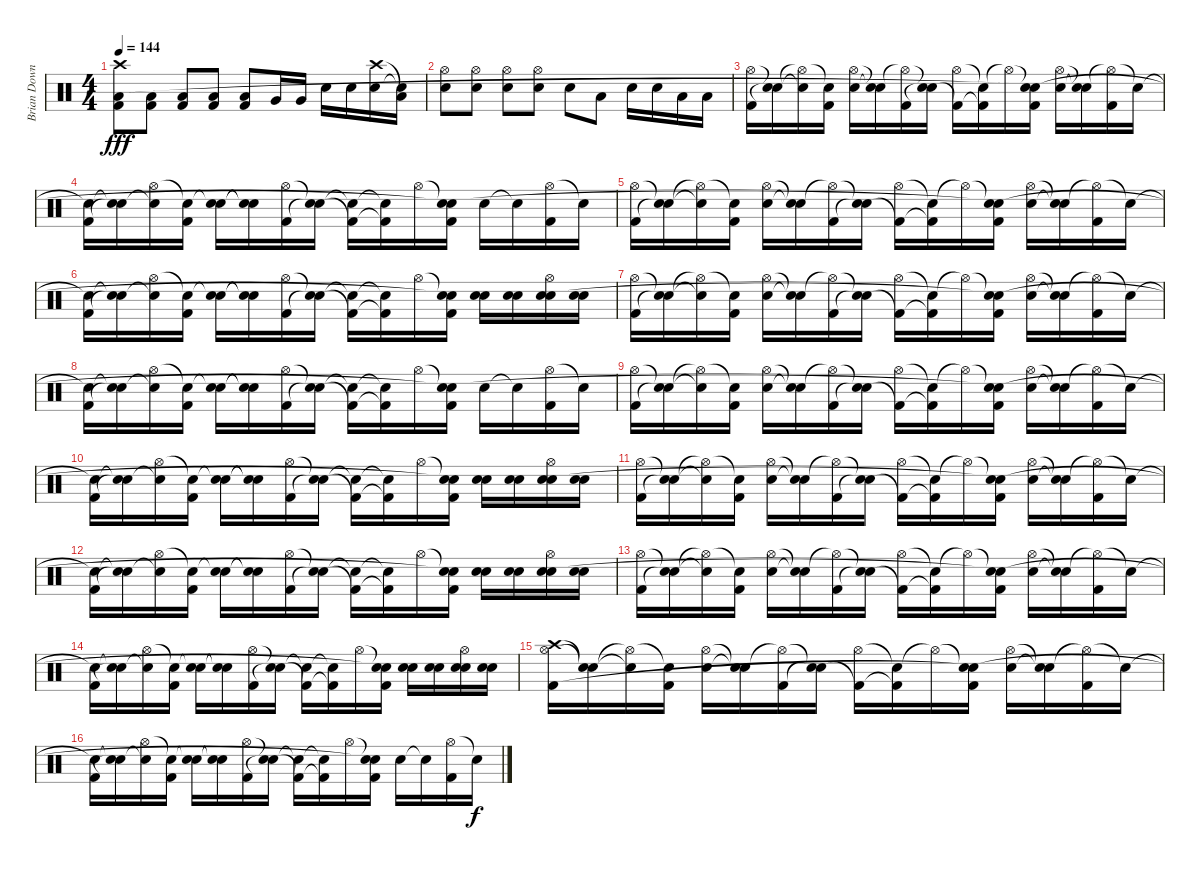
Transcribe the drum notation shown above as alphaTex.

\track ("Brian Downey" "Brian Down") {instrument percussion}
\staff {score}
\articulation defaults
\ts (4 4)
\tempo 144
\clef neutral
\ks c
("Crash high (hit)" "Kick (hit) 2" "Low Floor Tom (hit)").8{dy fff} ("Kick (hit) 2" "Low Floor Tom (hit)").8 ("Kick (hit) 2" "Low Floor Tom (hit)").8 ("Kick (hit) 2" "Low Floor Tom (hit)").8 ("Kick (hit) 2" "Low Floor Tom (hit)").8 "Very Low Tom (hit)".16 "Very Low Tom (hit)".16 "Electric Snare (hit)".16 "Electric Snare (hit)".16 ("Crash high (hit)" "Electric Snare (hit)").16 ("Low Floor Tom (hit)"{t} "Snare (hit)"{t}).16 |
("Hi-Hat (open)" "Electric Snare (hit)").8 ("Hi-Hat (open)" "Electric Snare (hit)").8 ("Hi-Hat (open)" "Electric Snare (hit)").8 ("Hi-Hat (open)" "Electric Snare (hit)").8 "Electric Snare (hit)".8 "Low Floor Tom (hit)".8 "Electric Snare (hit)".16 "Electric Snare (hit)".16 "Low Floor Tom (hit)".16 "Low Floor Tom (hit)".16 |
("Hi-Hat (open)" "Kick (hit) 2").16 ("Snare (hit)"{t} "Snare (hit)"{t}).16 ("Hi-Hat (open)"{t} "Snare (hit)"{t}).16 ("Snare (hit)"{t} "Kick (hit) 2").16 ("Hi-Hat (open)" "Electric Snare (hit)").16 ("Snare (hit)"{t} "Snare (hit)"{t}).16 ("Hi-Hat (open)"{t} "Kick (hit) 2").16 ("Snare (hit)"{t} "Snare (hit)"{t}).16 ("Hi-Hat (open)" "Kick (hit) 2"{t}).16 ("Snare (hit)"{t} "Kick (hit) 2"{t}).16 "Hi-Hat (open)"{t}.16 ("Snare (hit)"{t} "Kick (hit) 2" "Snare (hit)"{t}).16 ("Hi-Hat (open)" "Electric Snare (hit)").16 ("Snare (hit)"{t} "Snare (hit)"{t}).16 ("Hi-Hat (open)"{t} "Kick (hit) 2").16 "Snare (hit)"{t}.16 |
("Snare (hit)"{t} "Kick (hit) 2").16 ("Snare (hit)"{t} "Snare (hit)"{t}).16 ("Hi-Hat (open)" "Snare (hit)"{t}).16 ("Snare (hit)"{t} "Kick (hit) 2").16 ("Snare (hit)"{t} "Electric Snare (hit)").16 ("Snare (hit)"{t} "Snare (hit)"{t}).16 ("Hi-Hat (open)" "Kick (hit) 2").16 ("Snare (hit)"{t} "Snare (hit)"{t}).16 ("Snare (hit)"{t} "Kick (hit) 2"{t}).16 ("Snare (hit)"{t} "Kick (hit) 2"{t}).16 "Hi-Hat (open)".16 ("Snare (hit)"{t} "Kick (hit) 2" "Snare (hit)"{t}).16 "Electric Snare (hit)".16 "Snare (hit)"{t}.16 ("Hi-Hat (open)" "Kick (hit) 2").16 "Snare (hit)"{t}.16 |
("Hi-Hat (open)" "Kick (hit) 2").16 ("Snare (hit)"{t} "Snare (hit)"{t}).16 ("Hi-Hat (open)"{t} "Snare (hit)"{t}).16 ("Snare (hit)"{t} "Kick (hit) 2").16 ("Hi-Hat (open)" "Electric Snare (hit)").16 ("Snare (hit)"{t} "Snare (hit)"{t}).16 ("Hi-Hat (open)"{t} "Kick (hit) 2").16 ("Snare (hit)"{t} "Snare (hit)"{t}).16 ("Hi-Hat (open)" "Kick (hit) 2"{t}).16 ("Snare (hit)"{t} "Kick (hit) 2"{t}).16 "Hi-Hat (open)"{t}.16 ("Snare (hit)"{t} "Kick (hit) 2" "Snare (hit)"{t}).16 ("Hi-Hat (open)" "Electric Snare (hit)").16 ("Snare (hit)"{t} "Snare (hit)"{t}).16 ("Hi-Hat (open)"{t} "Kick (hit) 2").16 "Snare (hit)"{t}.16 |
("Snare (hit)"{t} "Kick (hit) 2").16 ("Snare (hit)"{t} "Snare (hit)"{t}).16 ("Hi-Hat (open)" "Snare (hit)"{t}).16 ("Snare (hit)"{t} "Kick (hit) 2").16 ("Snare (hit)"{t} "Electric Snare (hit)").16 ("Snare (hit)"{t} "Snare (hit)"{t}).16 ("Hi-Hat (open)" "Kick (hit) 2").16 ("Snare (hit)"{t} "Snare (hit)"{t}).16 ("Snare (hit)"{t} "Kick (hit) 2"{t}).16 ("Snare (hit)"{t} "Kick (hit) 2"{t}).16 "Hi-Hat (open)".16 ("Snare (hit)"{t} "Kick (hit) 2" "Snare (hit)"{t}).16 ("Electric Snare (hit)" "Snare (hit) 2").16 ("Electric Snare (hit)" "Snare (hit) 2").16 ("Hi-Hat (open)" "Electric Snare (hit)" "Snare (hit) 2").16 ("Electric Snare (hit)" "Snare (hit) 2").16 |
("Hi-Hat (open)" "Kick (hit) 2").16 ("Snare (hit)"{t} "Snare (hit)"{t}).16 ("Hi-Hat (open)"{t} "Snare (hit)"{t}).16 ("Snare (hit)"{t} "Kick (hit) 2").16 ("Hi-Hat (open)" "Electric Snare (hit)").16 ("Snare (hit)"{t} "Snare (hit)"{t}).16 ("Hi-Hat (open)"{t} "Kick (hit) 2").16 ("Snare (hit)"{t} "Snare (hit)"{t}).16 ("Hi-Hat (open)" "Kick (hit) 2"{t}).16 ("Snare (hit)"{t} "Kick (hit) 2"{t}).16 "Hi-Hat (open)"{t}.16 ("Snare (hit)"{t} "Kick (hit) 2" "Snare (hit)"{t}).16 ("Hi-Hat (open)" "Electric Snare (hit)").16 ("Snare (hit)"{t} "Snare (hit)"{t}).16 ("Hi-Hat (open)"{t} "Kick (hit) 2").16 "Snare (hit)"{t}.16 |
("Snare (hit)"{t} "Kick (hit) 2").16 ("Snare (hit)"{t} "Snare (hit)"{t}).16 ("Hi-Hat (open)" "Snare (hit)"{t}).16 ("Snare (hit)"{t} "Kick (hit) 2").16 ("Snare (hit)"{t} "Electric Snare (hit)").16 ("Snare (hit)"{t} "Snare (hit)"{t}).16 ("Hi-Hat (open)" "Kick (hit) 2").16 ("Snare (hit)"{t} "Snare (hit)"{t}).16 ("Snare (hit)"{t} "Kick (hit) 2"{t}).16 ("Snare (hit)"{t} "Kick (hit) 2"{t}).16 "Hi-Hat (open)".16 ("Snare (hit)"{t} "Kick (hit) 2" "Snare (hit)"{t}).16 "Electric Snare (hit)".16 "Snare (hit)"{t}.16 ("Hi-Hat (open)" "Kick (hit) 2").16 "Snare (hit)"{t}.16 |
("Hi-Hat (open)" "Kick (hit) 2").16 ("Snare (hit)"{t} "Snare (hit)"{t}).16 ("Hi-Hat (open)"{t} "Snare (hit)"{t}).16 ("Snare (hit)"{t} "Kick (hit) 2").16 ("Hi-Hat (open)" "Electric Snare (hit)").16 ("Snare (hit)"{t} "Snare (hit)"{t}).16 ("Hi-Hat (open)"{t} "Kick (hit) 2").16 ("Snare (hit)"{t} "Snare (hit)"{t}).16 ("Hi-Hat (open)" "Kick (hit) 2"{t}).16 ("Snare (hit)"{t} "Kick (hit) 2"{t}).16 "Hi-Hat (open)"{t}.16 ("Snare (hit)"{t} "Kick (hit) 2" "Snare (hit)"{t}).16 ("Hi-Hat (open)" "Electric Snare (hit)").16 ("Snare (hit)"{t} "Snare (hit)"{t}).16 ("Hi-Hat (open)"{t} "Kick (hit) 2").16 "Snare (hit)"{t}.16 |
("Snare (hit)"{t} "Kick (hit) 2").16 ("Snare (hit)"{t} "Snare (hit)"{t}).16 ("Hi-Hat (open)" "Snare (hit)"{t}).16 ("Snare (hit)"{t} "Kick (hit) 2").16 ("Snare (hit)"{t} "Electric Snare (hit)").16 ("Snare (hit)"{t} "Snare (hit)"{t}).16 ("Hi-Hat (open)" "Kick (hit) 2").16 ("Snare (hit)"{t} "Snare (hit)"{t}).16 ("Snare (hit)"{t} "Kick (hit) 2"{t}).16 ("Snare (hit)"{t} "Kick (hit) 2"{t}).16 "Hi-Hat (open)".16 ("Snare (hit)"{t} "Kick (hit) 2" "Snare (hit)"{t}).16 ("Electric Snare (hit)" "Snare (hit) 2").16 ("Electric Snare (hit)" "Snare (hit) 2").16 ("Hi-Hat (open)" "Electric Snare (hit)" "Snare (hit) 2").16 ("Electric Snare (hit)" "Snare (hit) 2").16 |
("Hi-Hat (open)" "Kick (hit) 2").16 ("Snare (hit)"{t} "Snare (hit)"{t}).16 ("Hi-Hat (open)"{t} "Snare (hit)"{t}).16 ("Snare (hit)"{t} "Kick (hit) 2").16 ("Hi-Hat (open)" "Electric Snare (hit)").16 ("Snare (hit)"{t} "Snare (hit)"{t}).16 ("Hi-Hat (open)"{t} "Kick (hit) 2").16 ("Snare (hit)"{t} "Snare (hit)"{t}).16 ("Hi-Hat (open)" "Kick (hit) 2"{t}).16 ("Snare (hit)"{t} "Kick (hit) 2"{t}).16 "Hi-Hat (open)"{t}.16 ("Snare (hit)"{t} "Kick (hit) 2" "Snare (hit)"{t}).16 ("Hi-Hat (open)" "Electric Snare (hit)").16 ("Snare (hit)"{t} "Snare (hit)"{t}).16 ("Hi-Hat (open)"{t} "Kick (hit) 2").16 "Snare (hit)"{t}.16 |
("Snare (hit)"{t} "Kick (hit) 2").16 ("Snare (hit)"{t} "Snare (hit)"{t}).16 ("Hi-Hat (open)" "Snare (hit)"{t}).16 ("Snare (hit)"{t} "Kick (hit) 2").16 ("Snare (hit)"{t} "Electric Snare (hit)").16 ("Snare (hit)"{t} "Snare (hit)"{t}).16 ("Hi-Hat (open)" "Kick (hit) 2").16 ("Snare (hit)"{t} "Snare (hit)"{t}).16 ("Snare (hit)"{t} "Kick (hit) 2"{t}).16 ("Snare (hit)"{t} "Kick (hit) 2"{t}).16 "Hi-Hat (open)".16 ("Snare (hit)"{t} "Kick (hit) 2" "Snare (hit)"{t}).16 ("Electric Snare (hit)" "Snare (hit) 2").16 ("Electric Snare (hit)" "Snare (hit) 2").16 ("Hi-Hat (open)" "Electric Snare (hit)" "Snare (hit) 2").16 ("Electric Snare (hit)" "Snare (hit) 2").16 |
("Hi-Hat (open)" "Kick (hit) 2").16 ("Snare (hit)"{t} "Snare (hit)"{t}).16 ("Hi-Hat (open)"{t} "Snare (hit)"{t}).16 ("Snare (hit)"{t} "Kick (hit) 2").16 ("Hi-Hat (open)" "Electric Snare (hit)").16 ("Snare (hit)"{t} "Snare (hit)"{t}).16 ("Hi-Hat (open)"{t} "Kick (hit) 2").16 ("Snare (hit)"{t} "Snare (hit)"{t}).16 ("Hi-Hat (open)" "Kick (hit) 2"{t}).16 ("Snare (hit)"{t} "Kick (hit) 2"{t}).16 "Hi-Hat (open)"{t}.16 ("Snare (hit)"{t} "Kick (hit) 2" "Snare (hit)"{t}).16 ("Hi-Hat (open)" "Electric Snare (hit)").16 ("Snare (hit)"{t} "Snare (hit)"{t}).16 ("Hi-Hat (open)"{t} "Kick (hit) 2").16 "Snare (hit)"{t}.16 |
("Snare (hit)"{t} "Kick (hit) 2").16 ("Snare (hit)"{t} "Snare (hit)"{t}).16 ("Hi-Hat (open)" "Snare (hit)"{t}).16 ("Snare (hit)"{t} "Kick (hit) 2").16 ("Snare (hit)"{t} "Electric Snare (hit)").16 ("Snare (hit)"{t} "Snare (hit)"{t}).16 ("Hi-Hat (open)" "Kick (hit) 2").16 ("Snare (hit)"{t} "Snare (hit)"{t}).16 ("Snare (hit)"{t} "Kick (hit) 2"{t}).16 ("Snare (hit)"{t} "Kick (hit) 2"{t}).16 "Hi-Hat (open)".16 ("Snare (hit)"{t} "Kick (hit) 2" "Snare (hit)"{t}).16 ("Electric Snare (hit)" "Snare (hit) 2").16 ("Electric Snare (hit)" "Snare (hit) 2").16 ("Hi-Hat (open)" "Electric Snare (hit)" "Snare (hit) 2").16 ("Electric Snare (hit)" "Snare (hit) 2").16 |
("Crash high (hit)" "Hi-Hat (open)" "Kick (hit) 2").16 ("Snare (hit)"{t} "Snare (hit)"{t}).16 ("Hi-Hat (open)"{t} "Snare (hit)"{t}).16 ("Snare (hit)"{t} "Kick (hit) 2").16 ("Hi-Hat (open)" "Electric Snare (hit)").16 ("Snare (hit)"{t} "Snare (hit)"{t}).16 ("Hi-Hat (open)"{t} "Kick (hit) 2").16 ("Snare (hit)"{t} "Snare (hit)"{t}).16 ("Hi-Hat (open)" "Kick (hit) 2"{t}).16 ("Snare (hit)"{t} "Kick (hit) 2"{t}).16 "Hi-Hat (open)"{t}.16 ("Snare (hit)"{t} "Kick (hit) 2" "Snare (hit)"{t}).16 ("Hi-Hat (open)" "Electric Snare (hit)").16 ("Snare (hit)"{t} "Snare (hit)"{t}).16 ("Hi-Hat (open)"{t} "Kick (hit) 2").16 "Snare (hit)"{t}.16 |
("Snare (hit)"{t} "Kick (hit) 2").16 ("Snare (hit)"{t} "Snare (hit)"{t}).16 ("Hi-Hat (open)" "Snare (hit)"{t}).16 ("Snare (hit)"{t} "Kick (hit) 2").16 ("Snare (hit)"{t} "Electric Snare (hit)").16 ("Snare (hit)"{t} "Snare (hit)"{t}).16 ("Hi-Hat (open)" "Kick (hit) 2").16 ("Snare (hit)"{t} "Snare (hit)"{t}).16 ("Snare (hit)"{t} "Kick (hit) 2"{t}).16 ("Snare (hit)"{t} "Kick (hit) 2"{t}).16 "Hi-Hat (open)".16 ("Snare (hit)"{t} "Kick (hit) 2" "Snare (hit)"{t}).16 "Electric Snare (hit)".16 "Snare (hit)"{t}.16 ("Hi-Hat (open)" "Kick (hit) 2").16 "Snare (hit)"{t}.16{dy f}
